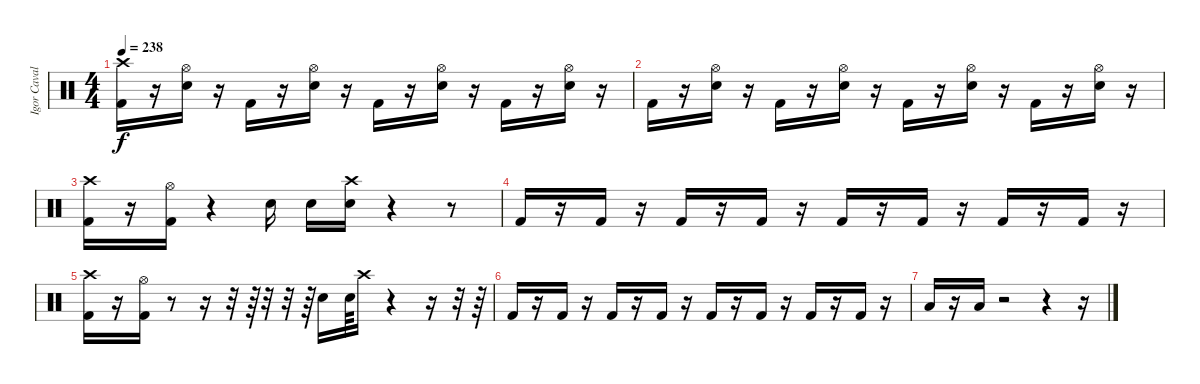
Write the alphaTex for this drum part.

\track ("Igor Cavalera" "Igor Caval") {instrument percussion}
\staff {score}
\articulation defaults
\ts (4 4)
\tempo 238
\clef neutral
\ks c
("Kick (hit) 2" "Crash high (hit)").16{dy f} r.16 ("Snare (hit) 2" "Hi-Hat (open)").16 r.16 "Kick (hit) 2".16 r.16 ("Snare (hit) 2" "Hi-Hat (open)").16 r.16 "Kick (hit) 2".16 r.16 ("Snare (hit) 2" "Hi-Hat (open)").16 r.16 "Kick (hit) 2".16 r.16 ("Snare (hit) 2" "Hi-Hat (open)").16 r.16 |
"Kick (hit) 2".16 r.16 ("Snare (hit) 2" "Hi-Hat (open)").16 r.16 "Kick (hit) 2".16 r.16 ("Snare (hit) 2" "Hi-Hat (open)").16 r.16 "Kick (hit) 2".16 r.16 ("Snare (hit) 2" "Hi-Hat (open)").16 r.16 "Kick (hit) 2".16 r.16 ("Snare (hit) 2" "Hi-Hat (open)").16 r.16 |
("Crash high (hit)" "Kick (hit) 2").16 r.16 ("Hi-Hat (open)" "Kick (hit) 2").16 r.4 "Snare (hit) 2".16 "Snare (hit) 2".16 ("Snare (hit) 2" "Crash high (hit)").16 r.4 r.8 |
"Kick (hit) 2".16 r.16 "Kick (hit) 2".16 r.16 "Kick (hit) 2".16 r.16 "Kick (hit) 2".16 r.16 "Kick (hit) 2".16 r.16 "Kick (hit) 2".16 r.16 "Kick (hit) 2".16 r.16 "Kick (hit) 2".16 r.16 |
("Crash high (hit)" "Kick (hit) 2").16 r.16 ("Hi-Hat (open)" "Kick (hit) 2").16 r.8 r.16 r.32 r.64 r.32 r.32 r.64 "Snare (hit) 2".16 "Snare (hit) 2".64 "Crash high (hit)".16 r.4 r.16 r.32 r.64 |
"Kick (hit) 2".16 r.16 "Kick (hit) 2".16 r.16 "Kick (hit) 2".16 r.16 "Kick (hit) 2".16 r.16 "Kick (hit) 2".16 r.16 "Kick (hit) 2".16 r.16 "Kick (hit) 2".16 r.16 "Kick (hit) 2".16 r.16 |
"Low Tom (hit)".16 r.16 "Low Tom (hit)".16 r.2 r.4 r.16
